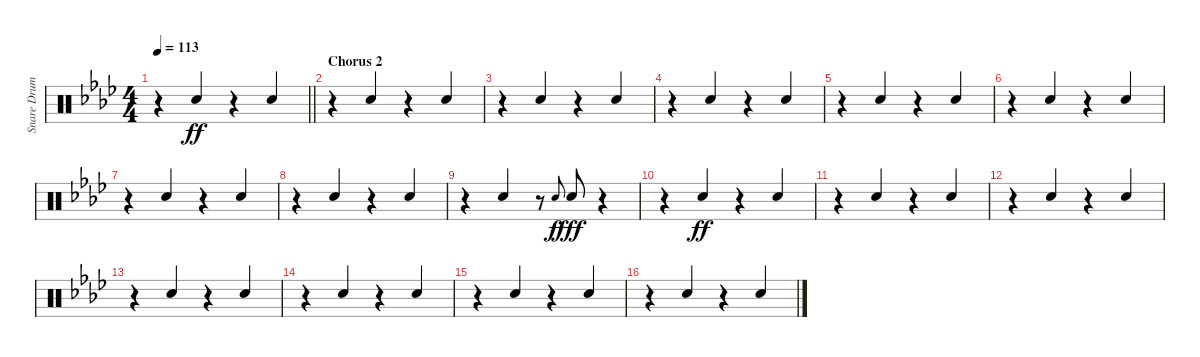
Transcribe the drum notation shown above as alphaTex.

\track ("Snare Drum" "Snare Drum") {instrument percussion}
\staff {score}
\articulation defaults
\ts (4 4)
\tempo 113
\clef neutral
\barLineRight lightlight
\ks fminor
r.4{dy ff} "Electric Snare (hit)".4{beam Up} r.4 "Electric Snare (hit)".4{beam Up} |
\section ("" "Chorus 2")
r.4 "Electric Snare (hit)".4{beam Up} r.4 "Electric Snare (hit)".4{beam Up} |
r.4 "Electric Snare (hit)".4{beam Up} r.4 "Electric Snare (hit)".4{beam Up} |
r.4 "Electric Snare (hit)".4{beam Up} r.4 "Electric Snare (hit)".4{beam Up} |
r.4 "Electric Snare (hit)".4{beam Up} r.4 "Electric Snare (hit)".4{beam Up} |
r.4 "Electric Snare (hit)".4{beam Up} r.4 "Electric Snare (hit)".4{beam Up} |
r.4 "Electric Snare (hit)".4{beam Up} r.4 "Electric Snare (hit)".4{beam Up} |
r.4 "Electric Snare (hit)".4{beam Up} r.4 "Electric Snare (hit)".4{beam Up} |
r.4 "Electric Snare (hit)".4{beam Up} r.8 "Electric Snare (hit)".8{gr onbeat dy f} "Electric Snare (hit)".8{dy fff beam Up} r.4 |
r.4 "Electric Snare (hit)".4{dy ff beam Up} r.4 "Electric Snare (hit)".4{beam Up} |
r.4 "Electric Snare (hit)".4{beam Up} r.4 "Electric Snare (hit)".4{beam Up} |
r.4 "Electric Snare (hit)".4{beam Up} r.4 "Electric Snare (hit)".4{beam Up} |
r.4 "Electric Snare (hit)".4{beam Up} r.4 "Electric Snare (hit)".4{beam Up} |
r.4 "Electric Snare (hit)".4{beam Up} r.4 "Electric Snare (hit)".4{beam Up} |
r.4 "Electric Snare (hit)".4{beam Up} r.4 "Electric Snare (hit)".4{beam Up} |
r.4 "Electric Snare (hit)".4{beam Up} r.4 "Electric Snare (hit)".4{beam Up}
